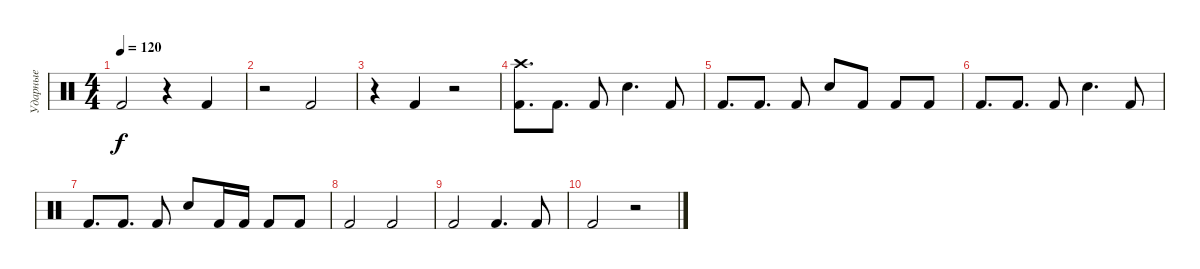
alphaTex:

\track ("Ударные" "Ударные") {instrument percussion}
\staff {score}
\articulation defaults
\ts (4 4)
\tempo 120
\clef neutral
\ks c "Kick (hit) 2".2{dy f}
r.4 "Kick (hit) 2".4 |
r.2 "Kick (hit) 2".2 |
r.4 "Kick (hit) 2".4 r.2 |
("Crash high (hit)" "Kick (hit) 2").8{d} "Kick (hit) 2".8{d} "Kick (hit) 2".8 "Snare (hit) 2".4{d} "Kick (hit) 2".8 |
"Kick (hit) 2".8{d} "Kick (hit) 2".8{d} "Kick (hit) 2".8 "Snare (hit) 2".8 "Kick (hit) 2".8 "Kick (hit) 2".8 "Kick (hit) 2".8 |
"Kick (hit) 2".8{d} "Kick (hit) 2".8{d} "Kick (hit) 2".8 "Snare (hit) 2".4{d} "Kick (hit) 2".8 |
"Kick (hit) 2".8{d} "Kick (hit) 2".8{d} "Kick (hit) 2".8 "Snare (hit) 2".8 "Kick (hit) 2".16 "Kick (hit) 2".16 "Kick (hit) 2".8 "Kick (hit) 2".8 |
"Kick (hit) 2".2 "Kick (hit) 2".2 |
"Kick (hit) 2".2 "Kick (hit) 2".4{d} "Kick (hit) 2".8 |
"Kick (hit) 2".2 r.2
